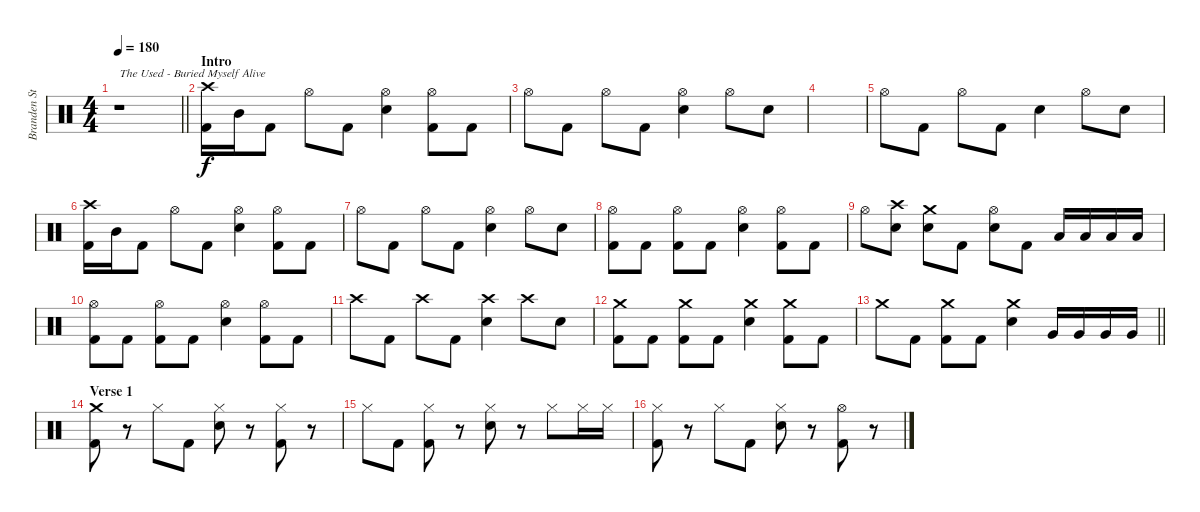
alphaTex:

\track ("Branden Steineckert" "Branden St") {instrument percussion}
\staff {score}
\articulation defaults
\ts (4 4)
\tempo 180
\clef neutral
\barLineRight lightlight
\ks c
r.1{txt "The Used - Buried Myself Alive" dy f} |
\section ("" "Intro")
("Crash high (hit)" "Kick (hit) 2").16 "Mid Tom (hit)".16 "Kick (hit) 2".8 "Hi-Hat (open)".8 "Kick (hit) 2".8 ("Hi-Hat (open)" "Electric Snare (hit)").4 ("Hi-Hat (open)" "Kick (hit) 2").8 "Kick (hit) 2".8 |
"Hi-Hat (open)".8 "Kick (hit) 2".8 "Hi-Hat (open)".8 "Kick (hit) 2".8 ("Hi-Hat (open)" "Electric Snare (hit)").4 "Hi-Hat (open)".8 "Electric Snare (hit)".8 |
|
"Hi-Hat (open)".8 "Kick (hit) 2".8 "Hi-Hat (open)".8 "Kick (hit) 2".8 "Electric Snare (hit)".4 "Hi-Hat (open)".8 "Electric Snare (hit)".8 |
("Crash high (hit)" "Kick (hit) 2").16 "Mid Tom (hit)".16 "Kick (hit) 2".8 "Hi-Hat (open)".8 "Kick (hit) 2".8 ("Hi-Hat (open)" "Electric Snare (hit)").4 ("Hi-Hat (open)" "Kick (hit) 2").8 "Kick (hit) 2".8 |
"Hi-Hat (open)".8 "Kick (hit) 2".8 "Hi-Hat (open)".8 "Kick (hit) 2".8 ("Hi-Hat (open)" "Electric Snare (hit)").4 "Hi-Hat (open)".8 "Electric Snare (hit)".8 |
("Hi-Hat (open)" "Kick (hit) 2").8 "Kick (hit) 2".8 ("Hi-Hat (open)" "Kick (hit) 2").8 "Kick (hit) 2".8 ("Hi-Hat (open)" "Electric Snare (hit)").4 ("Hi-Hat (open)" "Kick (hit) 2").8 "Kick (hit) 2".8 |
"Hi-Hat (open)".8 ("Crash high (hit)" "Electric Snare (hit)").8 ("Crash medium (hit)" "Electric Snare (hit)").8 "Kick (hit) 2".8 ("Hi-Hat (open)" "Electric Snare (hit)").8 "Kick (hit) 2".8 "Low Floor Tom (hit)".16 "Low Floor Tom (hit)".16 "Low Floor Tom (hit)".16 "Low Floor Tom (hit)".16 |
("Hi-Hat (open)" "Kick (hit) 2").8 "Kick (hit) 2".8 ("Hi-Hat (open)" "Kick (hit) 2").8 "Kick (hit) 2".8 ("Hi-Hat (open)" "Electric Snare (hit)").4 ("Hi-Hat (open)" "Kick (hit) 2").8 "Kick (hit) 2".8 |
"Crash high (hit)".8 "Kick (hit) 2".8 "Crash high (hit)".8 "Kick (hit) 2".8 ("Crash high (hit)" "Electric Snare (hit)").4 "Crash high (hit)".8 "Electric Snare (hit)".8 |
("Crash medium (hit)" "Kick (hit) 2").8 "Kick (hit) 2".8 ("Crash medium (hit)" "Kick (hit) 2").8 "Kick (hit) 2".8 ("Crash medium (hit)" "Electric Snare (hit)").4 ("Crash medium (hit)" "Kick (hit) 2").8 "Kick (hit) 2".8 |
\barLineRight lightlight "Crash medium (hit)".8 "Kick (hit) 2".8
("Crash medium (hit)" "Kick (hit) 2").8 "Kick (hit) 2".8 ("Crash medium (hit)" "Electric Snare (hit)").4 "Very Low Tom (hit)".16 "Very Low Tom (hit)".16 "Very Low Tom (hit)".16 "Very Low Tom (hit)".16 |
\section ("" "Verse 1")
("Crash medium (hit)" "Kick (hit) 2").8 r.8 "Hi-Hat (closed)".8 "Kick (hit) 2".8 ("Hi-Hat (closed)" "Electric Snare (hit)").8 r.8 ("Hi-Hat (closed)" "Kick (hit) 2").8 r.8 |
"Hi-Hat (closed)".8 "Kick (hit) 2".8 ("Hi-Hat (closed)" "Kick (hit) 2").8 r.8 ("Hi-Hat (closed)" "Electric Snare (hit)").8 r.8 "Hi-Hat (closed)".8 "Hi-Hat (closed)".16 "Hi-Hat (closed)".16 |
("Hi-Hat (closed)" "Kick (hit) 2").8 r.8 "Hi-Hat (closed)".8 "Kick (hit) 2".8 ("Hi-Hat (closed)" "Electric Snare (hit)").8 r.8 ("Hi-Hat (open)" "Kick (hit) 2").8 r.8
